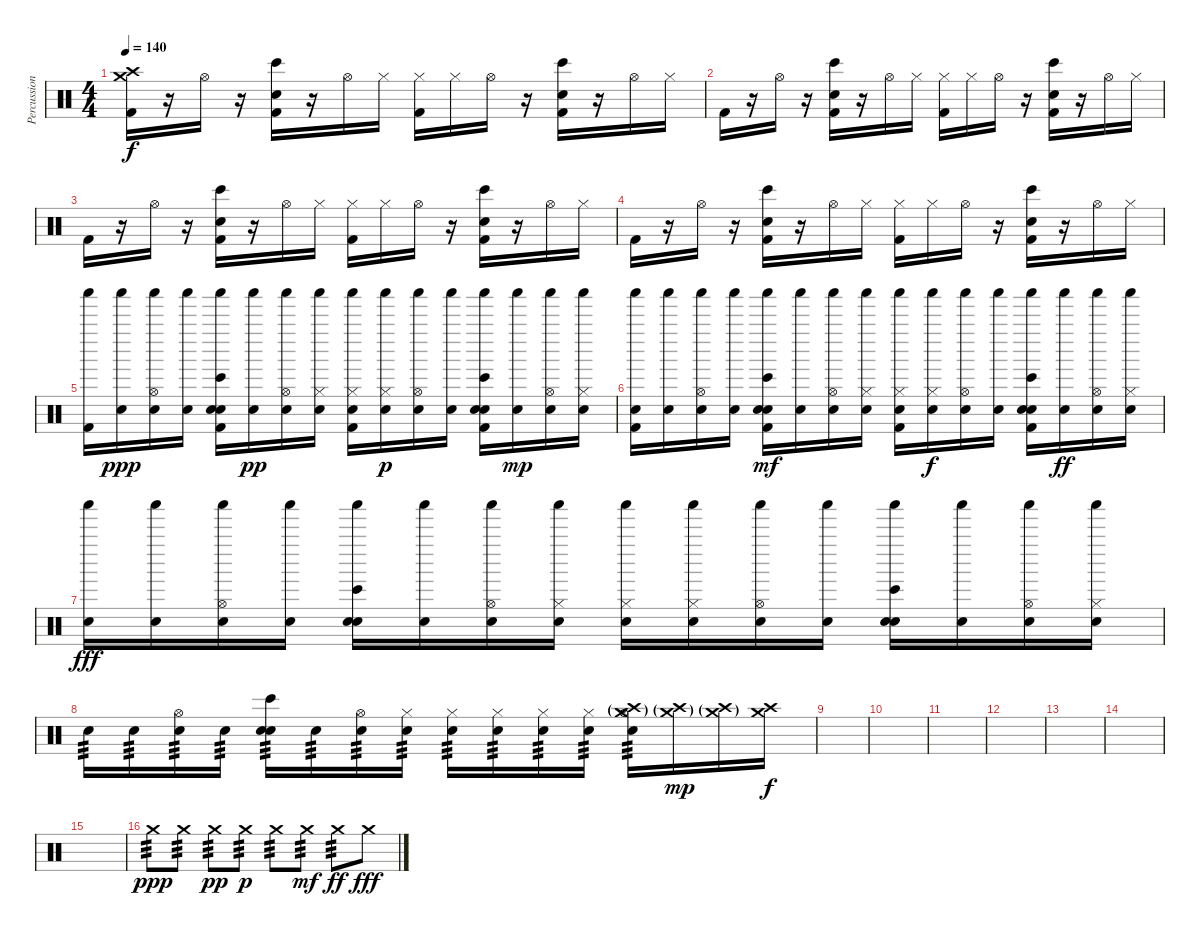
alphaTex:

\track ("Percussion" "Percussion") {instrument percussion}
\staff {score}
\articulation defaults
\ts (4 4)
\tempo 140
\clef neutral
\ks c
("Crash high (hit)" "Crash medium (hit)" "Kick (hit) 2").16{dy f} r.16 "Hi-Hat (open)".16 r.16 ("Hand Clap (hit)" "Bongo High (hit)" "Kick (hit) 2").16 r.16 "Hi-Hat (open)".16 "Hi-Hat (closed)".16 ("Hi-Hat (closed)" "Kick (hit) 2").16 "Hi-Hat (closed)".16 "Hi-Hat (open)".16 r.16 ("Hand Clap (hit)" "Bongo High (hit)" "Kick (hit) 2").16 r.16 "Hi-Hat (open)".16 "Hi-Hat (closed)".16 |
"Kick (hit) 2".16 r.16 "Hi-Hat (open)".16 r.16 ("Hand Clap (hit)" "Bongo High (hit)" "Kick (hit) 2").16 r.16 "Hi-Hat (open)".16 "Hi-Hat (closed)".16 ("Hi-Hat (closed)" "Kick (hit) 2").16 "Hi-Hat (closed)".16 "Hi-Hat (open)".16 r.16 ("Hand Clap (hit)" "Bongo High (hit)" "Kick (hit) 2").16 r.16 "Hi-Hat (open)".16 "Hi-Hat (closed)".16 |
"Kick (hit) 2".16 r.16 "Hi-Hat (open)".16 r.16 ("Hand Clap (hit)" "Bongo High (hit)" "Kick (hit) 2").16 r.16 "Hi-Hat (open)".16 "Hi-Hat (closed)".16 ("Hi-Hat (closed)" "Kick (hit) 2").16 "Hi-Hat (closed)".16 "Hi-Hat (open)".16 r.16 ("Hand Clap (hit)" "Bongo High (hit)" "Kick (hit) 2").16 r.16 "Hi-Hat (open)".16 "Hi-Hat (closed)".16 |
"Kick (hit) 2".16 r.16 "Hi-Hat (open)".16 r.16 ("Hand Clap (hit)" "Bongo High (hit)" "Kick (hit) 2").16 r.16 "Hi-Hat (open)".16 "Hi-Hat (closed)".16 ("Hi-Hat (closed)" "Kick (hit) 2").16 "Hi-Hat (closed)".16 "Hi-Hat (open)".16 r.16 ("Hand Clap (hit)" "Bongo High (hit)" "Kick (hit) 2").16 r.16 "Hi-Hat (open)".16 "Hi-Hat (closed)".16 |
("Shaker (hit)" "Kick (hit) 2").16 ("Shaker (hit)" "Snare (hit) 2").16{dy ppp} ("Shaker (hit)" "Hi-Hat (open)" "Snare (hit) 2").16 ("Shaker (hit)" "Snare (hit) 2").16 ("Shaker (hit)" "Hand Clap (hit)" "Bongo High (hit)" "Snare (hit) 2" "Kick (hit) 2").16 ("Shaker (hit)" "Snare (hit) 2").16{dy pp} ("Shaker (hit)" "Hi-Hat (open)" "Snare (hit) 2").16 ("Shaker (hit)" "Hi-Hat (closed)" "Snare (hit) 2").16 ("Shaker (hit)" "Hi-Hat (closed)" "Snare (hit) 2" "Kick (hit) 2").16 ("Shaker (hit)" "Hi-Hat (closed)" "Snare (hit) 2").16{dy p} ("Shaker (hit)" "Hi-Hat (open)" "Snare (hit) 2").16 ("Shaker (hit)" "Snare (hit) 2").16 ("Shaker (hit)" "Hand Clap (hit)" "Bongo High (hit)" "Snare (hit) 2" "Kick (hit) 2").16 ("Shaker (hit)" "Snare (hit) 2").16{dy mp} ("Shaker (hit)" "Hi-Hat (open)" "Snare (hit) 2").16 ("Shaker (hit)" "Hi-Hat (closed)" "Snare (hit) 2").16 |
("Shaker (hit)" "Snare (hit) 2" "Kick (hit) 2").16 ("Shaker (hit)" "Snare (hit) 2").16 ("Shaker (hit)" "Hi-Hat (open)" "Snare (hit) 2").16 ("Shaker (hit)" "Snare (hit) 2").16 ("Shaker (hit)" "Hand Clap (hit)" "Bongo High (hit)" "Snare (hit) 2" "Kick (hit) 2").16{dy mf} ("Shaker (hit)" "Snare (hit) 2").16 ("Shaker (hit)" "Hi-Hat (open)" "Snare (hit) 2").16 ("Shaker (hit)" "Hi-Hat (closed)" "Snare (hit) 2").16 ("Shaker (hit)" "Hi-Hat (closed)" "Snare (hit) 2" "Kick (hit) 2").16 ("Shaker (hit)" "Hi-Hat (closed)" "Snare (hit) 2").16{dy f} ("Shaker (hit)" "Hi-Hat (open)" "Snare (hit) 2").16 ("Shaker (hit)" "Snare (hit) 2").16 ("Shaker (hit)" "Hand Clap (hit)" "Bongo High (hit)" "Snare (hit) 2" "Kick (hit) 2").16 ("Shaker (hit)" "Snare (hit) 2").16{dy ff} ("Shaker (hit)" "Hi-Hat (open)" "Snare (hit) 2").16 ("Shaker (hit)" "Hi-Hat (closed)" "Snare (hit) 2").16 |
("Shaker (hit)" "Snare (hit) 2").16{dy fff} ("Shaker (hit)" "Snare (hit) 2").16 ("Shaker (hit)" "Hi-Hat (open)" "Snare (hit) 2").16 ("Shaker (hit)" "Snare (hit) 2").16 ("Shaker (hit)" "Hand Clap (hit)" "Bongo High (hit)" "Snare (hit) 2").16 ("Shaker (hit)" "Snare (hit) 2").16 ("Shaker (hit)" "Hi-Hat (open)" "Snare (hit) 2").16 ("Shaker (hit)" "Hi-Hat (closed)" "Snare (hit) 2").16 ("Shaker (hit)" "Hi-Hat (closed)" "Snare (hit) 2").16 ("Shaker (hit)" "Hi-Hat (closed)" "Snare (hit) 2").16 ("Shaker (hit)" "Hi-Hat (open)" "Snare (hit) 2").16 ("Shaker (hit)" "Snare (hit) 2").16 ("Shaker (hit)" "Hand Clap (hit)" "Bongo High (hit)" "Snare (hit) 2").16 ("Shaker (hit)" "Snare (hit) 2").16 ("Shaker (hit)" "Hi-Hat (open)" "Snare (hit) 2").16 ("Shaker (hit)" "Hi-Hat (closed)" "Snare (hit) 2").16 |
"Snare (hit) 2".16{tp 3} "Snare (hit) 2".16{tp 3} ("Hi-Hat (open)" "Snare (hit) 2").16{tp 3} "Snare (hit) 2".16{tp 3} ("Hand Clap (hit)" "Bongo High (hit)" "Snare (hit) 2").16{tp 3} "Snare (hit) 2".16{tp 3} ("Hi-Hat (open)" "Snare (hit) 2").16{tp 3} ("Hi-Hat (closed)" "Snare (hit) 2").16{tp 3} ("Hi-Hat (closed)" "Snare (hit) 2").16{tp 3} ("Hi-Hat (closed)" "Snare (hit) 2").16{tp 3} ("Hi-Hat (closed)" "Snare (hit) 2").16{tp 3} ("Hi-Hat (closed)" "Snare (hit) 2").16{tp 3} ("Crash high (hit)"{g} "Crash medium (hit)"{g} "Hi-Hat (open)" "Snare (hit) 2").16{tp 3} ("Crash high (hit)"{g} "Crash medium (hit)"{g}).16{dy mp} ("Crash high (hit)"{g} "Crash medium (hit)"{g}).16 ("Crash high (hit)" "Crash medium (hit)").16{dy f} |
|
|
|
|
|
|
|
"Crash medium (hit)".8{tp 3 dy ppp} "Crash medium (hit)".8{tp 3} "Crash medium (hit)".8{tp 3 dy pp} "Crash medium (hit)".8{tp 3 dy p} "Crash medium (hit)".8{tp 3} "Crash medium (hit)".8{tp 3 dy mf} "Crash medium (hit)".8{tp 3 dy ff} "Crash medium (hit)".8{dy fff}
